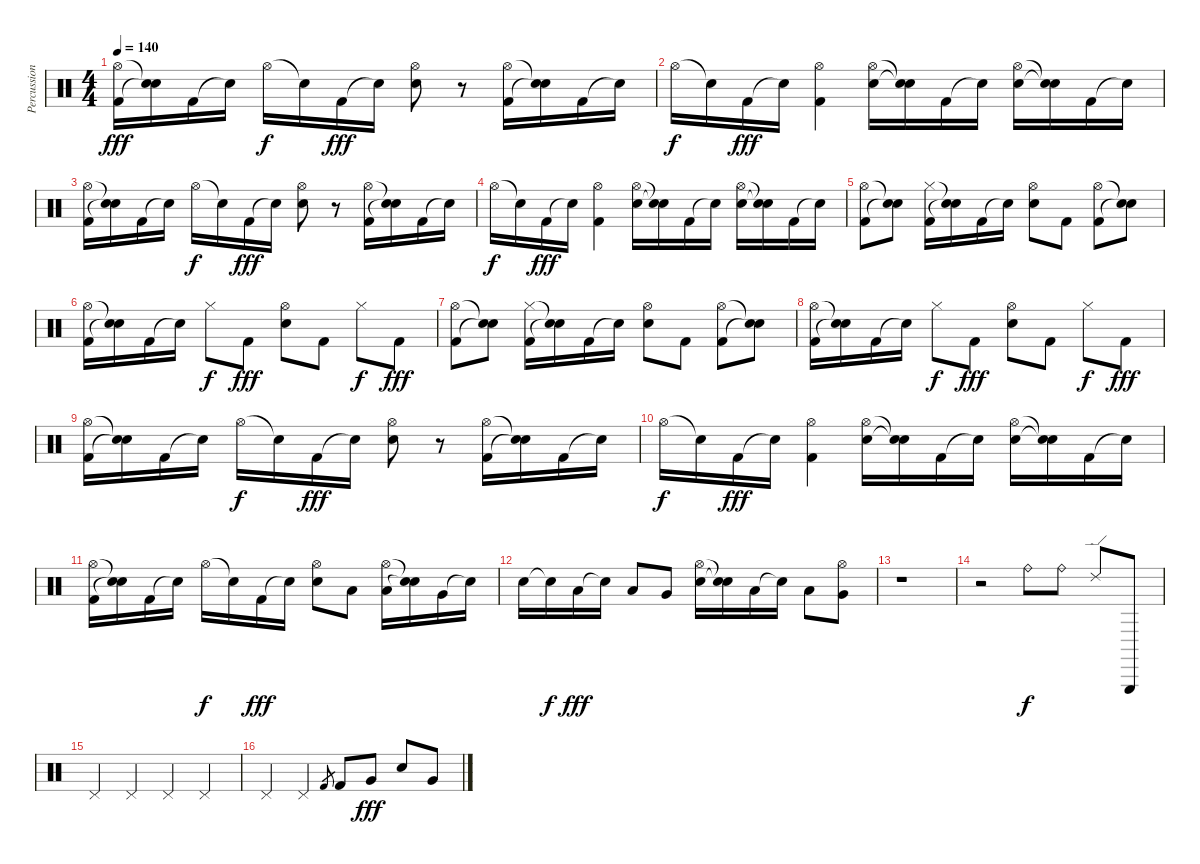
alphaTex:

\track ("Percussion" "Percussion") {instrument percussion}
\staff {score}
\articulation defaults
\ts (4 4)
\tempo 140
\clef neutral
\ks c
("Hi-Hat (open)" "Kick (hit) 2").16{dy fff} ("Snare (hit)"{t} "Snare (hit)"{t}).16 "Kick (hit) 2".16 "Snare (hit)"{t}.16 "Hi-Hat (open)".16{dy f} "Snare (hit)"{t}.16 "Kick (hit) 2".16{dy fff} "Snare (hit)"{t}.16 ("Hi-Hat (open)" "Electric Snare (hit)").8 r.8 ("Hi-Hat (open)" "Kick (hit) 2").16 ("Snare (hit)"{t} "Snare (hit)"{t}).16 "Kick (hit) 2".16 "Snare (hit)"{t}.16 |
"Hi-Hat (open)".16{dy f} "Snare (hit)"{t}.16 "Kick (hit) 2".16{dy fff} "Snare (hit)"{t}.16 ("Hi-Hat (open)" "Kick (hit) 2").4 ("Hi-Hat (open)" "Electric Snare (hit)").16 ("Snare (hit)"{t} "Snare (hit)"{t}).16 "Kick (hit) 2".16 "Snare (hit)"{t}.16 ("Hi-Hat (open)" "Electric Snare (hit)").16 ("Snare (hit)"{t} "Snare (hit)"{t}).16 "Kick (hit) 2".16 "Snare (hit)"{t}.16 |
("Hi-Hat (open)" "Kick (hit) 2").16 ("Snare (hit)"{t} "Snare (hit)"{t}).16 "Kick (hit) 2".16 "Snare (hit)"{t}.16 "Hi-Hat (open)".16{dy f} "Snare (hit)"{t}.16 "Kick (hit) 2".16{dy fff} "Snare (hit)"{t}.16 ("Hi-Hat (open)" "Electric Snare (hit)").8 r.8 ("Hi-Hat (open)" "Kick (hit) 2").16 ("Snare (hit)"{t} "Snare (hit)"{t}).16 "Kick (hit) 2".16 "Snare (hit)"{t}.16 |
"Hi-Hat (open)".16{dy f} "Snare (hit)"{t}.16 "Kick (hit) 2".16{dy fff} "Snare (hit)"{t}.16 ("Hi-Hat (open)" "Kick (hit) 2").4 ("Hi-Hat (open)" "Electric Snare (hit)").16 ("Snare (hit)"{t} "Snare (hit)"{t}).16 "Kick (hit) 2".16 "Snare (hit)"{t}.16 ("Hi-Hat (open)" "Electric Snare (hit)").16 ("Snare (hit)"{t} "Snare (hit)"{t}).16 "Kick (hit) 2".16 "Snare (hit)"{t}.16 |
("Hi-Hat (open)" "Kick (hit) 2").8 ("Snare (hit)"{t} "Snare (hit)"{t}).8 ("Hi-Hat (closed)" "Kick (hit) 2").16 ("Snare (hit)"{t} "Snare (hit)"{t}).16 "Kick (hit) 2".16 "Snare (hit)"{t}.16 ("Hi-Hat (open)" "Electric Snare (hit)").8 "Kick (hit) 2".8 ("Hi-Hat (open)" "Kick (hit) 2").8 ("Snare (hit)"{t} "Snare (hit)"{t}).8 |
("Hi-Hat (open)" "Kick (hit) 2").16 ("Snare (hit)"{t} "Snare (hit)"{t}).16 "Kick (hit) 2".16 "Snare (hit)"{t}.16 "Hi-Hat (closed)".8{dy f} "Kick (hit) 2".8{dy fff} ("Hi-Hat (open)" "Electric Snare (hit)").8 "Kick (hit) 2".8 "Hi-Hat (closed)".8{dy f} "Kick (hit) 2".8{dy fff} |
("Hi-Hat (open)" "Kick (hit) 2").8 ("Snare (hit)"{t} "Snare (hit)"{t}).8 ("Hi-Hat (closed)" "Kick (hit) 2").16 ("Snare (hit)"{t} "Snare (hit)"{t}).16 "Kick (hit) 2".16 "Snare (hit)"{t}.16 ("Hi-Hat (open)" "Electric Snare (hit)").8 "Kick (hit) 2".8 ("Hi-Hat (open)" "Kick (hit) 2").8 ("Snare (hit)"{t} "Snare (hit)"{t}).8 |
("Hi-Hat (open)" "Kick (hit) 2").16 ("Snare (hit)"{t} "Snare (hit)"{t}).16 "Kick (hit) 2".16 "Snare (hit)"{t}.16 "Hi-Hat (closed)".8{dy f} "Kick (hit) 2".8{dy fff} ("Hi-Hat (open)" "Electric Snare (hit)").8 "Kick (hit) 2".8 "Hi-Hat (closed)".8{dy f} "Kick (hit) 2".8{dy fff} |
("Hi-Hat (open)" "Kick (hit) 2").16 ("Snare (hit)"{t} "Snare (hit)"{t}).16 "Kick (hit) 2".16 "Snare (hit)"{t}.16 "Hi-Hat (open)".16{dy f} "Snare (hit)"{t}.16 "Kick (hit) 2".16{dy fff} "Snare (hit)"{t}.16 ("Hi-Hat (open)" "Electric Snare (hit)").8 r.8 ("Hi-Hat (open)" "Kick (hit) 2").16 ("Snare (hit)"{t} "Snare (hit)"{t}).16 "Kick (hit) 2".16 "Snare (hit)"{t}.16 |
"Hi-Hat (open)".16{dy f} "Snare (hit)"{t}.16 "Kick (hit) 2".16{dy fff} "Snare (hit)"{t}.16 ("Hi-Hat (open)" "Kick (hit) 2").4 ("Hi-Hat (open)" "Electric Snare (hit)").16 ("Snare (hit)"{t} "Snare (hit)"{t}).16 "Kick (hit) 2".16 "Snare (hit)"{t}.16 ("Hi-Hat (open)" "Electric Snare (hit)").16 ("Snare (hit)"{t} "Snare (hit)"{t}).16 "Kick (hit) 2".16 "Snare (hit)"{t}.16 |
("Hi-Hat (open)" "Kick (hit) 2").16 ("Snare (hit)"{t} "Snare (hit)"{t}).16 "Kick (hit) 2".16 "Snare (hit)"{t}.16 "Hi-Hat (open)".16{dy f} "Snare (hit)"{t}.16 "Kick (hit) 2".16{dy fff} "Snare (hit)"{t}.16 ("Hi-Hat (open)" "Electric Snare (hit)").8 "Low Tom (hit)".8 ("Hi-Hat (open)" "Low Floor Tom (hit)").16 ("Snare (hit)"{t} "Snare (hit)"{t}).16 "Very Low Tom (hit)".16 "Snare (hit)"{t}.16 |
"Electric Snare (hit)".16 "Snare (hit)"{t}.16{dy f} "Low Tom (hit)".16{dy fff} "Snare (hit)"{t}.16 "Low Floor Tom (hit)".8 "Very Low Tom (hit)".8 ("Hi-Hat (open)" "Electric Snare (hit)").16 ("Snare (hit)"{t} "Snare (hit)"{t}).16 "Low Tom (hit)".16 "Snare (hit)"{t}.16 "Low Floor Tom (hit)".8 ("Hi-Hat (open)" "Very Low Tom (hit)").8 |
r.1 |
r.2 "Ride (bell)".8{dy f} "Ride (bell)".8 "Ride (edge) 2".8 "Triangle (hit)".8 |
"Pedal Hi-Hat (hit)".4 "Pedal Hi-Hat (hit)".4 "Pedal Hi-Hat (hit)".4 "Pedal Hi-Hat (hit)".4 |
"Pedal Hi-Hat (hit)".4 "Pedal Hi-Hat (hit)".4 "Kick (hit) 2".8{gr} "Kick (hit) 2".8 "Very Low Tom (hit)".8{dy fff} "Electric Snare (hit)".8 "Very Low Tom (hit)".8
